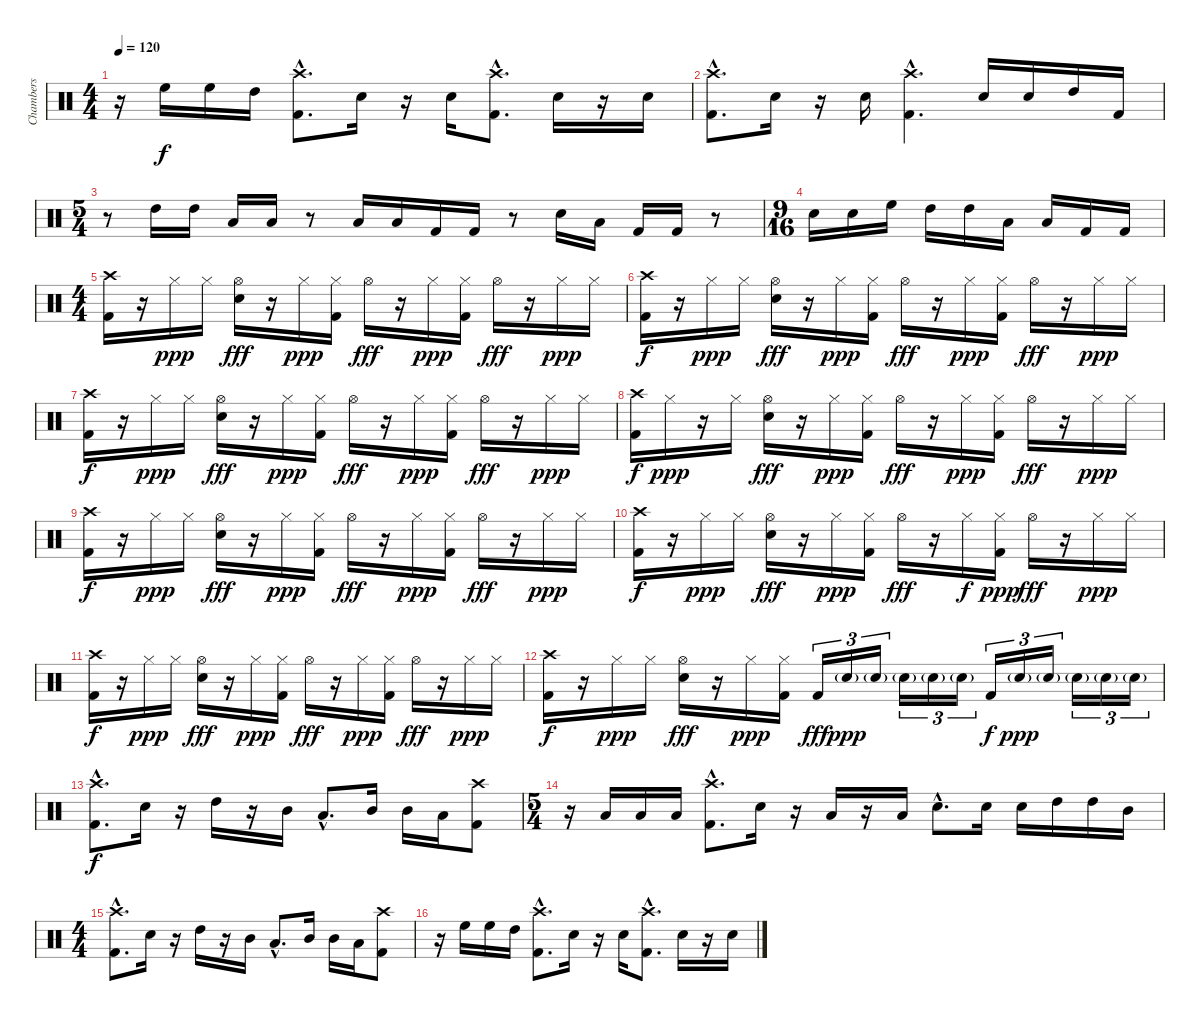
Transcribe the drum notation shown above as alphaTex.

\track ("Chambers" "Chambers") {instrument percussion}
\staff {score}
\articulation defaults
\ts (4 4)
\tempo 120
\clef neutral
\ks c
r.16{dy f} "High Floor Tom (hit)".16 "High Floor Tom (hit)".16 "High Tom (hit)".16 ("Crash high (hit)"{hac} "Kick (hit) 2"{hac}).8{d} "Electric Snare (hit)".16 r.16 "Electric Snare (hit)".16 ("Crash high (hit)"{hac} "Kick (hit) 2"{hac}).8{d} "Electric Snare (hit)".16 r.16 "Electric Snare (hit)".16 |
("Crash high (hit)"{hac} "Kick (hit) 2"{hac}).8{d} "Electric Snare (hit)".16 r.16 "Electric Snare (hit)".16 ("Crash high (hit)"{hac} "Kick (hit) 2"{hac}).4{d} "Electric Snare (hit)".16 "Electric Snare (hit)".16 "High Tom (hit)".16 "Kick (hit) 2".16 |
\ts (5 4)
r.8 "High Tom (hit)".16 "High Tom (hit)".16 "Low Tom (hit)".16 "Low Tom (hit)".16 r.8 "Low Tom (hit)".16 "Low Tom (hit)".16 "Kick (hit) 2".16 "Kick (hit) 2".16 r.8 "Electric Snare (hit)".16 "Low Tom (hit)".16 "Kick (hit) 2".16 "Kick (hit) 2".16 r.8 |
\ts (9 16)
"Electric Snare (hit)".16 "Electric Snare (hit)".16 "High Floor Tom (hit)".16 "High Tom (hit)".16 "High Tom (hit)".16 "Low Tom (hit)".16 "Low Tom (hit)".16 "Kick (hit) 2".16 "Kick (hit) 2".16 |
\ts (4 4)
("Crash high (hit)" "Kick (hit) 2").16 r.16 "Hi-Hat (closed)".16{dy ppp} "Hi-Hat (closed)".16 ("Hi-Hat (open)" "Electric Snare (hit)").16{dy fff} r.16 "Hi-Hat (closed)".16{dy ppp} ("Hi-Hat (closed)" "Kick (hit) 2").16 "Hi-Hat (open)".16{dy fff} r.16 "Hi-Hat (closed)".16{dy ppp} ("Hi-Hat (closed)" "Kick (hit) 2").16 "Hi-Hat (open)".16{dy fff} r.16 "Hi-Hat (closed)".16{dy ppp} "Hi-Hat (closed)".16 |
("Crash high (hit)" "Kick (hit) 2").16{dy f} r.16 "Hi-Hat (closed)".16{dy ppp} "Hi-Hat (closed)".16 ("Hi-Hat (open)" "Electric Snare (hit)").16{dy fff} r.16 "Hi-Hat (closed)".16{dy ppp} ("Hi-Hat (closed)" "Kick (hit) 2").16 "Hi-Hat (open)".16{dy fff} r.16 "Hi-Hat (closed)".16{dy ppp} ("Hi-Hat (closed)" "Kick (hit) 2").16 "Hi-Hat (open)".16{dy fff} r.16 "Hi-Hat (closed)".16{dy ppp} "Hi-Hat (closed)".16 |
("Crash high (hit)" "Kick (hit) 2").16{dy f} r.16 "Hi-Hat (closed)".16{dy ppp} "Hi-Hat (closed)".16 ("Hi-Hat (open)" "Electric Snare (hit)").16{dy fff} r.16 "Hi-Hat (closed)".16{dy ppp} ("Hi-Hat (closed)" "Kick (hit) 2").16 "Hi-Hat (open)".16{dy fff} r.16 "Hi-Hat (closed)".16{dy ppp} ("Hi-Hat (closed)" "Kick (hit) 2").16 "Hi-Hat (open)".16{dy fff} r.16 "Hi-Hat (closed)".16{dy ppp} "Hi-Hat (closed)".16 |
("Crash high (hit)" "Kick (hit) 2").16{dy f} "Hi-Hat (closed)".16{dy ppp} r.16 "Hi-Hat (closed)".16 ("Hi-Hat (open)" "Electric Snare (hit)").16{dy fff} r.16 "Hi-Hat (closed)".16{dy ppp} ("Hi-Hat (closed)" "Kick (hit) 2").16 "Hi-Hat (open)".16{dy fff} r.16 "Hi-Hat (closed)".16{dy ppp} ("Hi-Hat (closed)" "Kick (hit) 2").16 "Hi-Hat (open)".16{dy fff} r.16 "Hi-Hat (closed)".16{dy ppp} "Hi-Hat (closed)".16 |
("Crash high (hit)" "Kick (hit) 2").16{dy f} r.16 "Hi-Hat (closed)".16{dy ppp} "Hi-Hat (closed)".16 ("Hi-Hat (open)" "Electric Snare (hit)").16{dy fff} r.16 "Hi-Hat (closed)".16{dy ppp} ("Hi-Hat (closed)" "Kick (hit) 2").16 "Hi-Hat (open)".16{dy fff} r.16 "Hi-Hat (closed)".16{dy ppp} ("Hi-Hat (closed)" "Kick (hit) 2").16 "Hi-Hat (open)".16{dy fff} r.16 "Hi-Hat (closed)".16{dy ppp} "Hi-Hat (closed)".16 |
("Crash high (hit)" "Kick (hit) 2").16{dy f} r.16 "Hi-Hat (closed)".16{dy ppp} "Hi-Hat (closed)".16 ("Hi-Hat (open)" "Electric Snare (hit)").16{dy fff} r.16 "Hi-Hat (closed)".16{dy ppp} ("Hi-Hat (closed)" "Kick (hit) 2").16 "Hi-Hat (open)".16{dy fff} r.16 "Hi-Hat (closed)".16{dy f} ("Hi-Hat (closed)" "Kick (hit) 2").16{dy ppp} "Hi-Hat (open)".16{dy fff} r.16 "Hi-Hat (closed)".16{dy ppp} "Hi-Hat (closed)".16 |
("Crash high (hit)" "Kick (hit) 2").16{dy f} r.16 "Hi-Hat (closed)".16{dy ppp} "Hi-Hat (closed)".16 ("Hi-Hat (open)" "Electric Snare (hit)").16{dy fff} r.16 "Hi-Hat (closed)".16{dy ppp} ("Hi-Hat (closed)" "Kick (hit) 2").16 "Hi-Hat (open)".16{dy fff} r.16 "Hi-Hat (closed)".16{dy ppp} ("Hi-Hat (closed)" "Kick (hit) 2").16 "Hi-Hat (open)".16{dy fff} r.16 "Hi-Hat (closed)".16{dy ppp} "Hi-Hat (closed)".16 |
("Crash high (hit)" "Kick (hit) 2").16{dy f} r.16 "Hi-Hat (closed)".16{dy ppp} "Hi-Hat (closed)".16 ("Hi-Hat (open)" "Electric Snare (hit)").16{dy fff} r.16 "Hi-Hat (closed)".16{dy ppp} ("Hi-Hat (closed)" "Kick (hit) 2").16 "Kick (hit) 2".16{tu (3 2) dy fff} "Electric Snare (hit)"{g}.16{tu (3 2) dy ppp} "Electric Snare (hit)"{g}.16{tu (3 2)} "Electric Snare (hit)"{g}.16{tu (3 2)} "Electric Snare (hit)"{g}.16{tu (3 2)} "Electric Snare (hit)"{g}.16{tu (3 2)} "Kick (hit) 2".16{tu (3 2) dy f} "Electric Snare (hit)"{g}.16{tu (3 2) dy ppp} "Electric Snare (hit)"{g}.16{tu (3 2)} "Electric Snare (hit)"{g}.16{tu (3 2)} "Electric Snare (hit)"{g}.16{tu (3 2)} "Electric Snare (hit)"{g}.16{tu (3 2)} |
("Crash high (hit)"{hac} "Kick (hit) 2"{hac}).8{d dy f} "Electric Snare (hit)".16 r.16 "High Tom (hit)".16 r.16 "Mid Tom (hit)".16 "Low Tom (hit)"{hac}.8{d} "Mid Tom (hit)".16 "Mid Tom (hit)".16 "Low Tom (hit)".16 ("Crash high (hit)" "Kick (hit) 2").8 |
\ts (5 4)
r.16 "Low Tom (hit)".16 "Low Tom (hit)".16 "Low Tom (hit)".16 ("Crash high (hit)"{hac} "Kick (hit) 2"{hac}).8{d} "Electric Snare (hit)".16 r.16 "Low Tom (hit)".16 r.16 "Low Tom (hit)".16 "Electric Snare (hit)"{hac}.8{d} "Electric Snare (hit)".16 "Electric Snare (hit)".16 "High Tom (hit)".16 "High Tom (hit)".16 "Mid Tom (hit)".16 |
\ts (4 4)
("Crash high (hit)"{hac} "Kick (hit) 2"{hac}).8{d} "Electric Snare (hit)".16 r.16 "High Tom (hit)".16 r.16 "Mid Tom (hit)".16 "Low Tom (hit)"{hac}.8{d} "Mid Tom (hit)".16 "Mid Tom (hit)".16 "Low Tom (hit)".16 ("Crash high (hit)" "Kick (hit) 2").8 |
r.16 "High Floor Tom (hit)".16 "High Floor Tom (hit)".16 "High Tom (hit)".16 ("Crash high (hit)"{hac} "Kick (hit) 2"{hac}).8{d} "Electric Snare (hit)".16 r.16 "Electric Snare (hit)".16 ("Crash high (hit)"{hac} "Kick (hit) 2"{hac}).8{d} "Electric Snare (hit)".16 r.16 "Electric Snare (hit)".16
